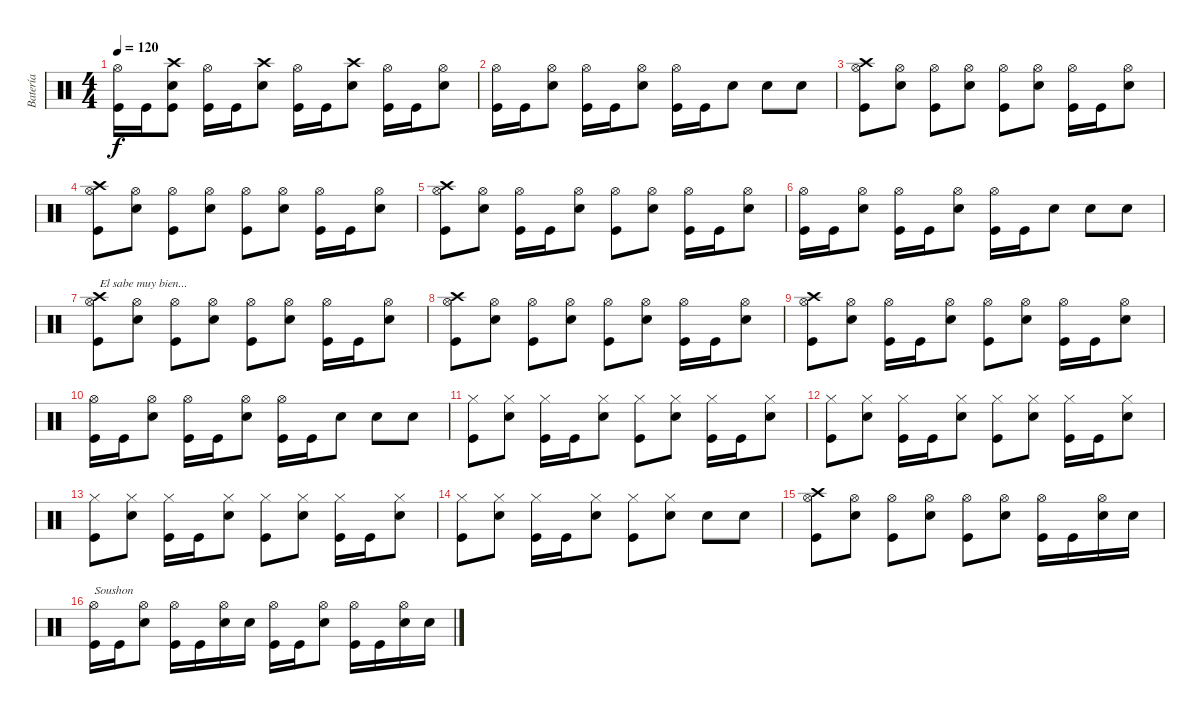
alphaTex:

\track ("Batería" "Batería") {instrument percussion}
\staff {score}
\articulation defaults
\ts (4 4)
\tempo 120
\clef neutral
\ks c
("Hi-Hat (open)" "Kick (hit)").16{dy f} "Kick (hit)".16 ("Crash high (hit)" "Electric Snare (hit)" "Kick (hit)").8 ("Hi-Hat (open)" "Kick (hit)").16 "Kick (hit)".16 ("Crash high (hit)" "Electric Snare (hit)").8 ("Hi-Hat (open)" "Kick (hit)").16 "Kick (hit)".16 ("Crash high (hit)" "Electric Snare (hit)").8 ("Hi-Hat (open)" "Kick (hit)").16 "Kick (hit)".16 ("Hi-Hat (open)" "Electric Snare (hit)").8 |
("Hi-Hat (open)" "Kick (hit)").16 "Kick (hit)".16 ("Hi-Hat (open)" "Electric Snare (hit)").8 ("Hi-Hat (open)" "Kick (hit)").16 "Kick (hit)".16 ("Hi-Hat (open)" "Electric Snare (hit)").8 ("Hi-Hat (open)" "Kick (hit)").16 "Kick (hit)".16 "Electric Snare (hit)".8 "Electric Snare (hit)".8 "Electric Snare (hit)".8 |
("Crash high (hit)" "Hi-Hat (open)" "Kick (hit)").8 ("Hi-Hat (open)" "Electric Snare (hit)").8 ("Hi-Hat (open)" "Kick (hit)").8 ("Hi-Hat (open)" "Electric Snare (hit)").8 ("Hi-Hat (open)" "Kick (hit)").8 ("Hi-Hat (open)" "Electric Snare (hit)").8 ("Hi-Hat (open)" "Kick (hit)").16 "Kick (hit)".16 ("Hi-Hat (open)" "Electric Snare (hit)").8 |
("Crash high (hit)" "Hi-Hat (open)" "Kick (hit)").8 ("Hi-Hat (open)" "Electric Snare (hit)").8 ("Hi-Hat (open)" "Kick (hit)").8 ("Hi-Hat (open)" "Electric Snare (hit)").8 ("Hi-Hat (open)" "Kick (hit)").8 ("Hi-Hat (open)" "Electric Snare (hit)").8 ("Hi-Hat (open)" "Kick (hit)").16 "Kick (hit)".16 ("Hi-Hat (open)" "Electric Snare (hit)").8 |
("Crash high (hit)" "Hi-Hat (open)" "Kick (hit)").8 ("Hi-Hat (open)" "Electric Snare (hit)").8 ("Hi-Hat (open)" "Kick (hit)").16 "Kick (hit)".16 ("Hi-Hat (open)" "Electric Snare (hit)").8 ("Hi-Hat (open)" "Kick (hit)").8 ("Hi-Hat (open)" "Electric Snare (hit)").8 ("Hi-Hat (open)" "Kick (hit)").16 "Kick (hit)".16 ("Hi-Hat (open)" "Electric Snare (hit)").8 |
("Hi-Hat (open)" "Kick (hit)").16 "Kick (hit)".16 ("Hi-Hat (open)" "Electric Snare (hit)").8 ("Hi-Hat (open)" "Kick (hit)").16 "Kick (hit)".16 ("Hi-Hat (open)" "Electric Snare (hit)").8 ("Hi-Hat (open)" "Kick (hit)").16 "Kick (hit)".16 "Electric Snare (hit)".8 "Electric Snare (hit)".8 "Electric Snare (hit)".8 |
("Crash high (hit)" "Hi-Hat (open)" "Kick (hit)").8{txt "El sabe muy bien..."} ("Hi-Hat (open)" "Electric Snare (hit)").8 ("Hi-Hat (open)" "Kick (hit)").8 ("Hi-Hat (open)" "Electric Snare (hit)").8 ("Hi-Hat (open)" "Kick (hit)").8 ("Hi-Hat (open)" "Electric Snare (hit)").8 ("Hi-Hat (open)" "Kick (hit)").16 "Kick (hit)".16 ("Hi-Hat (open)" "Electric Snare (hit)").8 |
("Crash high (hit)" "Hi-Hat (open)" "Kick (hit)").8 ("Hi-Hat (open)" "Electric Snare (hit)").8 ("Hi-Hat (open)" "Kick (hit)").8 ("Hi-Hat (open)" "Electric Snare (hit)").8 ("Hi-Hat (open)" "Kick (hit)").8 ("Hi-Hat (open)" "Electric Snare (hit)").8 ("Hi-Hat (open)" "Kick (hit)").16 "Kick (hit)".16 ("Hi-Hat (open)" "Electric Snare (hit)").8 |
("Crash high (hit)" "Hi-Hat (open)" "Kick (hit)").8 ("Hi-Hat (open)" "Electric Snare (hit)").8 ("Hi-Hat (open)" "Kick (hit)").16 "Kick (hit)".16 ("Hi-Hat (open)" "Electric Snare (hit)").8 ("Hi-Hat (open)" "Kick (hit)").8 ("Hi-Hat (open)" "Electric Snare (hit)").8 ("Hi-Hat (open)" "Kick (hit)").16 "Kick (hit)".16 ("Hi-Hat (open)" "Electric Snare (hit)").8 |
("Hi-Hat (open)" "Kick (hit)").16 "Kick (hit)".16 ("Hi-Hat (open)" "Electric Snare (hit)").8 ("Hi-Hat (open)" "Kick (hit)").16 "Kick (hit)".16 ("Hi-Hat (open)" "Electric Snare (hit)").8 ("Hi-Hat (open)" "Kick (hit)").16 "Kick (hit)".16 "Electric Snare (hit)".8 "Electric Snare (hit)".8 "Electric Snare (hit)".8 |
("Hi-Hat (closed)" "Kick (hit)").8 ("Hi-Hat (closed)" "Electric Snare (hit)").8 ("Hi-Hat (closed)" "Kick (hit)").16 "Kick (hit)".16 ("Hi-Hat (closed)" "Electric Snare (hit)").8 ("Hi-Hat (closed)" "Kick (hit)").8 ("Hi-Hat (closed)" "Electric Snare (hit)").8 ("Hi-Hat (closed)" "Kick (hit)").16 "Kick (hit)".16 ("Hi-Hat (closed)" "Electric Snare (hit)").8 |
("Hi-Hat (closed)" "Kick (hit)").8 ("Hi-Hat (closed)" "Electric Snare (hit)").8 ("Hi-Hat (closed)" "Kick (hit)").16 "Kick (hit)".16 ("Hi-Hat (closed)" "Electric Snare (hit)").8 ("Hi-Hat (closed)" "Kick (hit)").8 ("Hi-Hat (closed)" "Electric Snare (hit)").8 ("Hi-Hat (closed)" "Kick (hit)").16 "Kick (hit)".16 ("Hi-Hat (closed)" "Electric Snare (hit)").8 |
("Hi-Hat (closed)" "Kick (hit)").8 ("Hi-Hat (closed)" "Electric Snare (hit)").8 ("Hi-Hat (closed)" "Kick (hit)").16 "Kick (hit)".16 ("Hi-Hat (closed)" "Electric Snare (hit)").8 ("Hi-Hat (closed)" "Kick (hit)").8 ("Hi-Hat (closed)" "Electric Snare (hit)").8 ("Hi-Hat (closed)" "Kick (hit)").16 "Kick (hit)".16 ("Hi-Hat (closed)" "Electric Snare (hit)").8 |
("Hi-Hat (closed)" "Kick (hit)").8 ("Hi-Hat (closed)" "Electric Snare (hit)").8 ("Hi-Hat (closed)" "Kick (hit)").16 "Kick (hit)".16 ("Hi-Hat (closed)" "Electric Snare (hit)").8 ("Hi-Hat (closed)" "Kick (hit)").8 ("Hi-Hat (closed)" "Electric Snare (hit)").8 "Electric Snare (hit)".8 "Electric Snare (hit)".8 |
("Crash high (hit)" "Hi-Hat (open)" "Kick (hit)").8 ("Hi-Hat (open)" "Electric Snare (hit)").8 ("Hi-Hat (open)" "Kick (hit)").8 ("Hi-Hat (open)" "Electric Snare (hit)").8 ("Hi-Hat (open)" "Kick (hit)").8 ("Hi-Hat (open)" "Electric Snare (hit)").8 ("Hi-Hat (open)" "Kick (hit)").16 "Kick (hit)".16 ("Hi-Hat (open)" "Electric Snare (hit)").16 "Electric Snare (hit)".16 |
("Hi-Hat (open)" "Kick (hit)").16{txt "Soushon"} "Kick (hit)".16 ("Hi-Hat (open)" "Electric Snare (hit)").8 ("Hi-Hat (open)" "Kick (hit)").16 "Kick (hit)".16 ("Hi-Hat (open)" "Electric Snare (hit)").16 "Electric Snare (hit)".16 ("Hi-Hat (open)" "Kick (hit)").16 "Kick (hit)".16 ("Hi-Hat (open)" "Electric Snare (hit)").8 ("Hi-Hat (open)" "Kick (hit)").16 "Kick (hit)".16 ("Hi-Hat (open)" "Electric Snare (hit)").16 "Electric Snare (hit)".16
